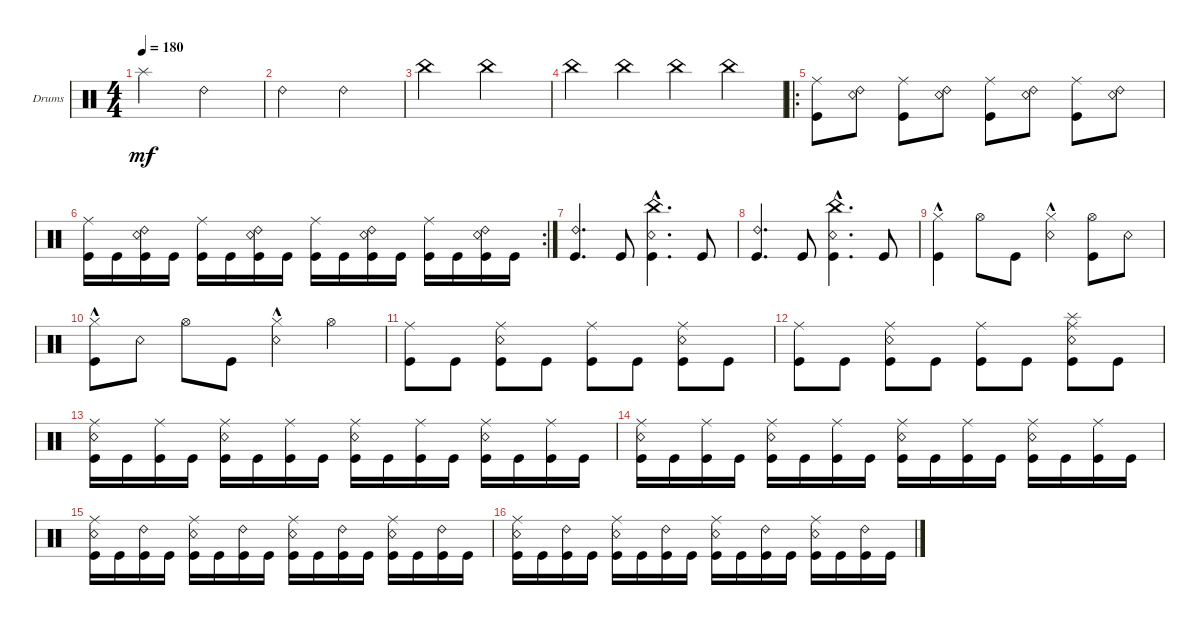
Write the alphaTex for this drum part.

\defaultSystemsLayout 4
\bracketExtendMode groupsimilarinstruments
\firstSystemTrackNameOrientation horizontal
\otherSystemsTrackNameOrientation horizontal
\track ("Drumkit" "Drums") {instrument percussion}
\staff {score}
\articulation defaults
\ts (4 4)
\tempo 180
\clef neutral
\scale
0.333333
\ks c "Splash (hit)".2{dy mf} "Ride (bell) 2".2
|
\scale
0.333333 "Ride (bell) 2".2 "Ride (bell) 2".2 |
\scale
0.333333 "China (hit)".2 "China (hit)".2 |
\scale
0.333333 "China (hit)".4 "China (hit)".4 "China (hit)".4 "China (hit)".4 |
\ro
\scale
0.365591 ("Ride (middle)" "Kick (hit)").8 ("Ride (bell) 2" "Snare (rim shot)").8 ("Ride (middle)" "Kick (hit)").8 ("Ride (bell) 2" "Snare (rim shot)").8 ("Ride (middle)" "Kick (hit)").8 ("Ride (bell) 2" "Snare (rim shot)").8 ("Ride (middle)" "Kick (hit)").8 ("Ride (bell) 2" "Snare (rim shot)").8 |
\rc 2
\scale
0.333333 ("Kick (hit)" "Ride (middle)").16 "Kick (hit)".16 ("Kick (hit)" "Ride (bell) 2" "Snare (rim shot)").16 "Kick (hit)".16 ("Kick (hit)" "Ride (middle)").16 "Kick (hit)".16 ("Kick (hit)" "Ride (bell) 2" "Snare (rim shot)").16 "Kick (hit)".16 ("Kick (hit)" "Ride (middle)").16 "Kick (hit)".16 ("Kick (hit)" "Ride (bell) 2" "Snare (rim shot)").16 "Kick (hit)".16 ("Kick (hit)" "Ride (middle)").16 "Kick (hit)".16 ("Kick (hit)" "Ride (bell) 2" "Snare (rim shot)").16 "Kick (hit)".16 |
\scale
0.301075 ("Kick (hit)" "Ride (bell) 2").4{d} "Kick (hit)".8 ("Kick (hit)" "China (hit)"{hac} "Snare (rim shot)").4{d} "Kick (hit)".8 |
\scale
0.333333 ("Kick (hit)" "Ride (bell) 2").4{d} "Kick (hit)".8 ("Kick (hit)" "China (hit)"{hac} "Snare (rim shot)").4{d} "Kick (hit)".8 |
\scale
0.333333 ("Kick (hit)" "Hi-Hat (closed)"{hac}).4 "Hi-Hat (open)".8 "Kick (hit)".8 ("Hi-Hat (closed)"{hac} "Snare (rim shot)").4 ("Hi-Hat (open)" "Kick (hit)").8 "Snare (rim shot)".8 |
\scale
0.333333 ("Hi-Hat (closed)"{hac} "Kick (hit)").8 "Snare (rim shot)".8 "Hi-Hat (open)".8 "Kick (hit)".8 ("Hi-Hat (closed)"{hac} "Snare (rim shot)").4 "Hi-Hat (open)".4 |
\scale
0.333333 ("Kick (hit)" "Ride (middle)").8 "Kick (hit)".8 ("Kick (hit)" "Ride (middle)" "Snare (rim shot)").8 "Kick (hit)".8 ("Kick (hit)" "Ride (middle)").8 "Kick (hit)".8 ("Kick (hit)" "Ride (middle)" "Snare (rim shot)").8 "Kick (hit)".8 |
\scale
0.333333 ("Kick (hit)" "Ride (middle)").8 "Kick (hit)".8 ("Kick (hit)" "Ride (middle)" "Snare (rim shot)").8 "Kick (hit)".8 ("Kick (hit)" "Ride (middle)").8 "Kick (hit)".8 ("Kick (hit)" "Ride (middle)" "Snare (rim shot)" "Splash (hit)").8 "Kick (hit)".8 |
\scale
0.333333 ("Kick (hit)" "Ride (middle)" "Snare (rim shot)").16 "Kick (hit)".16 ("Kick (hit)" "Ride (middle)").16 "Kick (hit)".16 ("Kick (hit)" "Ride (middle)" "Snare (rim shot)").16 "Kick (hit)".16 ("Kick (hit)" "Ride (middle)").16 "Kick (hit)".16 ("Kick (hit)" "Ride (middle)" "Snare (rim shot)").16 "Kick (hit)".16 ("Kick (hit)" "Ride (middle)").16 "Kick (hit)".16 ("Kick (hit)" "Ride (middle)" "Snare (rim shot)").16 "Kick (hit)".16 ("Kick (hit)" "Ride (middle)").16 "Kick (hit)".16 |
\scale
0.333333 ("Kick (hit)" "Ride (middle)" "Snare (rim shot)").16 "Kick (hit)".16 ("Kick (hit)" "Ride (middle)").16 "Kick (hit)".16 ("Kick (hit)" "Ride (middle)" "Snare (rim shot)").16 "Kick (hit)".16 ("Kick (hit)" "Ride (middle)").16 "Kick (hit)".16 ("Kick (hit)" "Ride (middle)" "Snare (rim shot)").16 "Kick (hit)".16 ("Kick (hit)" "Ride (middle)").16 "Kick (hit)".16 ("Kick (hit)" "Ride (middle)" "Snare (rim shot)").16 "Kick (hit)".16 ("Kick (hit)" "Ride (middle)").16 "Kick (hit)".16 |
\scale
0.333333 ("Snare (rim shot)" "Ride (middle)" "Kick (hit)").16 "Kick (hit)".16 ("Ride (bell) 2" "Kick (hit)").16 "Kick (hit)".16 ("Snare (rim shot)" "Ride (middle)" "Kick (hit)").16 "Kick (hit)".16 ("Ride (bell) 2" "Kick (hit)").16 "Kick (hit)".16 ("Ride (middle)" "Snare (rim shot)" "Kick (hit)").16 "Kick (hit)".16 ("Ride (bell) 2" "Kick (hit)").16 "Kick (hit)".16 ("Snare (rim shot)" "Ride (middle)" "Kick (hit)").16 "Kick (hit)".16 ("Ride (bell) 2" "Kick (hit)").16 "Kick (hit)".16 |
\scale
0.333333 ("Snare (rim shot)" "Ride (middle)" "Kick (hit)").16 "Kick (hit)".16 ("Ride (bell) 2" "Kick (hit)").16 "Kick (hit)".16 ("Snare (rim shot)" "Ride (middle)" "Kick (hit)").16 "Kick (hit)".16 ("Ride (bell) 2" "Kick (hit)").16 "Kick (hit)".16 ("Ride (middle)" "Snare (rim shot)" "Kick (hit)").16 "Kick (hit)".16 ("Ride (bell) 2" "Kick (hit)").16 "Kick (hit)".16 ("Snare (rim shot)" "Ride (middle)" "Kick (hit)").16 "Kick (hit)".16 ("Ride (bell) 2" "Kick (hit)").16 "Kick (hit)".16
